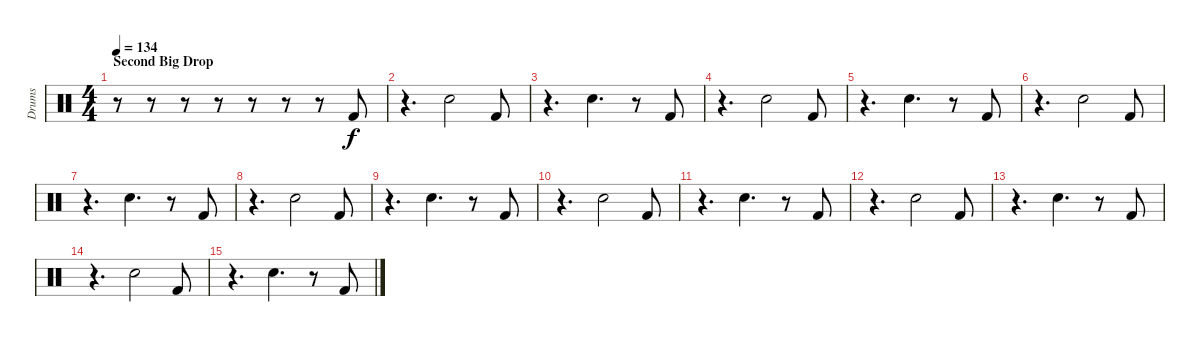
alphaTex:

\track ("Drums" "Drums") {instrument percussion}
\staff {score}
\articulation defaults
\ts (4 4)
\section ("" "Second Big Drop")
\tempo 134
\clef neutral
\ks c
r.8{dy f} r.8 r.8 r.8 r.8 r.8 r.8 "Kick (hit) 2".8 |
r.4{d} "Electric Snare (hit)".2 "Kick (hit) 2".8 |
r.4{d} "Electric Snare (hit)".4{d} r.8 "Kick (hit) 2".8 |
r.4{d} "Electric Snare (hit)".2 "Kick (hit) 2".8 |
r.4{d} "Electric Snare (hit)".4{d} r.8 "Kick (hit) 2".8 |
r.4{d} "Electric Snare (hit)".2 "Kick (hit) 2".8 |
r.4{d} "Electric Snare (hit)".4{d} r.8 "Kick (hit) 2".8 |
r.4{d} "Electric Snare (hit)".2 "Kick (hit) 2".8 |
r.4{d} "Electric Snare (hit)".4{d} r.8 "Kick (hit) 2".8 |
r.4{d} "Electric Snare (hit)".2 "Kick (hit) 2".8 |
r.4{d} "Electric Snare (hit)".4{d} r.8 "Kick (hit) 2".8 |
r.4{d} "Electric Snare (hit)".2 "Kick (hit) 2".8 |
r.4{d} "Electric Snare (hit)".4{d} r.8 "Kick (hit) 2".8 |
r.4{d} "Electric Snare (hit)".2 "Kick (hit) 2".8 |
r.4{d} "Electric Snare (hit)".4{d} r.8 "Kick (hit) 2".8
